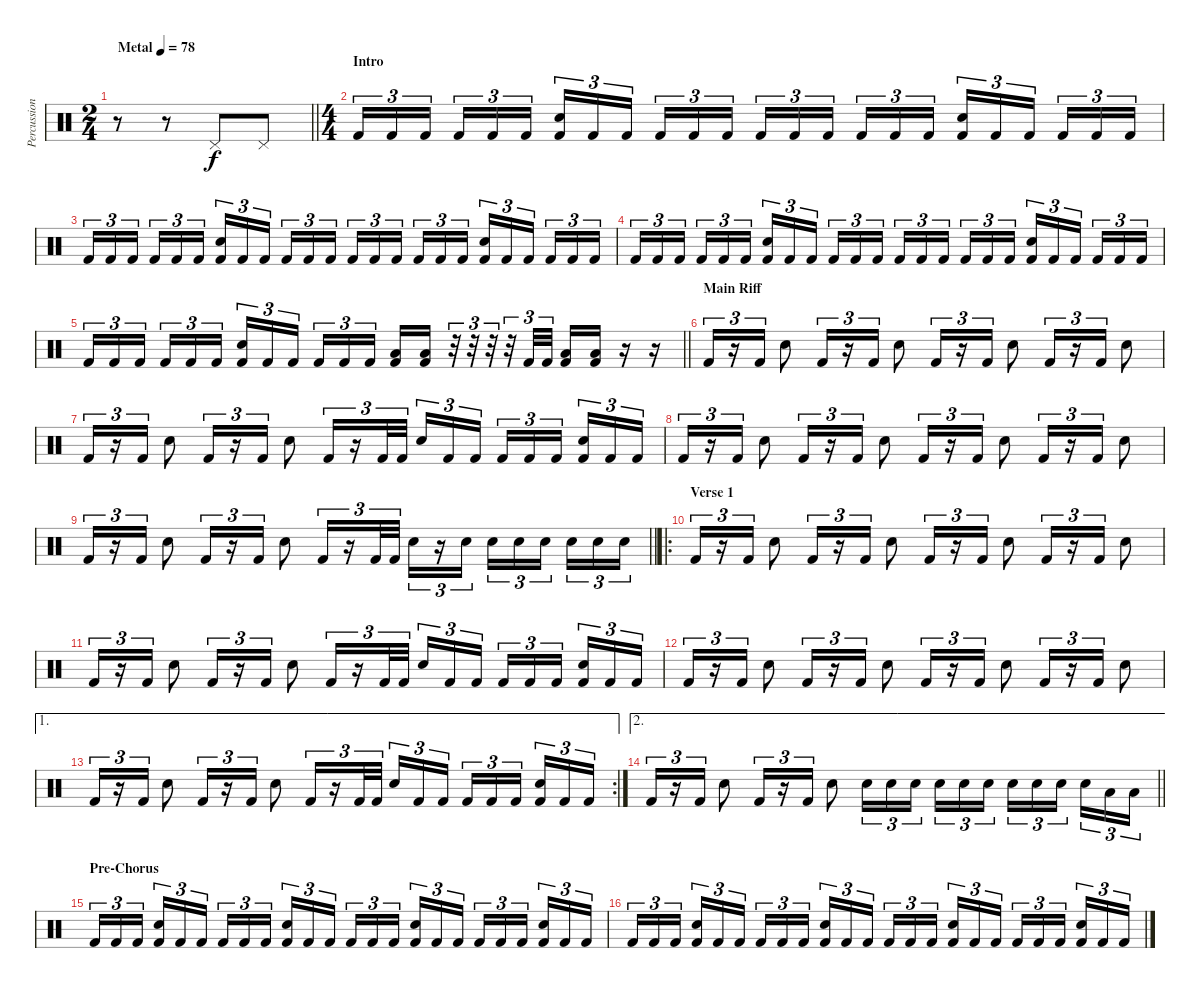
\track ("Percussion" "Percussion") {instrument percussion}
\staff {score}
\articulation defaults
\ts (2 4)
\tempo (78 "Metal")
\clef neutral
\barLineRight lightlight
\ks c
r.8{dy f} r.8 "Pedal Hi-Hat (hit)".8 "Pedal Hi-Hat (hit)".8 |
\ts (4 4)
\section ("" "Intro")
"Kick (hit) 2".16{tu (3 2)} "Kick (hit) 2".16{tu (3 2)} "Kick (hit) 2".16{tu (3 2) beam splitsecondary} "Kick (hit) 2".16{tu (3 2)} "Kick (hit) 2".16{tu (3 2)} "Kick (hit) 2".16{tu (3 2)} ("Kick (hit) 2" "Electric Snare (hit)").16{tu (3 2)} "Kick (hit) 2".16{tu (3 2)} "Kick (hit) 2".16{tu (3 2) beam splitsecondary} "Kick (hit) 2".16{tu (3 2)} "Kick (hit) 2".16{tu (3 2)} "Kick (hit) 2".16{tu (3 2)} "Kick (hit) 2".16{tu (3 2)} "Kick (hit) 2".16{tu (3 2)} "Kick (hit) 2".16{tu (3 2) beam splitsecondary} "Kick (hit) 2".16{tu (3 2)} "Kick (hit) 2".16{tu (3 2)} "Kick (hit) 2".16{tu (3 2)} ("Kick (hit) 2" "Electric Snare (hit)").16{tu (3 2)} "Kick (hit) 2".16{tu (3 2)} "Kick (hit) 2".16{tu (3 2) beam splitsecondary} "Kick (hit) 2".16{tu (3 2)} "Kick (hit) 2".16{tu (3 2)} "Kick (hit) 2".16{tu (3 2)} |
"Kick (hit) 2".16{tu (3 2)} "Kick (hit) 2".16{tu (3 2)} "Kick (hit) 2".16{tu (3 2) beam splitsecondary} "Kick (hit) 2".16{tu (3 2)} "Kick (hit) 2".16{tu (3 2)} "Kick (hit) 2".16{tu (3 2)} ("Kick (hit) 2" "Electric Snare (hit)").16{tu (3 2)} "Kick (hit) 2".16{tu (3 2)} "Kick (hit) 2".16{tu (3 2) beam splitsecondary} "Kick (hit) 2".16{tu (3 2)} "Kick (hit) 2".16{tu (3 2)} "Kick (hit) 2".16{tu (3 2)} "Kick (hit) 2".16{tu (3 2)} "Kick (hit) 2".16{tu (3 2)} "Kick (hit) 2".16{tu (3 2) beam splitsecondary} "Kick (hit) 2".16{tu (3 2)} "Kick (hit) 2".16{tu (3 2)} "Kick (hit) 2".16{tu (3 2)} ("Kick (hit) 2" "Electric Snare (hit)").16{tu (3 2)} "Kick (hit) 2".16{tu (3 2)} "Kick (hit) 2".16{tu (3 2) beam splitsecondary} "Kick (hit) 2".16{tu (3 2)} "Kick (hit) 2".16{tu (3 2)} "Kick (hit) 2".16{tu (3 2)} |
"Kick (hit) 2".16{tu (3 2)} "Kick (hit) 2".16{tu (3 2)} "Kick (hit) 2".16{tu (3 2) beam splitsecondary} "Kick (hit) 2".16{tu (3 2)} "Kick (hit) 2".16{tu (3 2)} "Kick (hit) 2".16{tu (3 2)} ("Kick (hit) 2" "Electric Snare (hit)").16{tu (3 2)} "Kick (hit) 2".16{tu (3 2)} "Kick (hit) 2".16{tu (3 2) beam splitsecondary} "Kick (hit) 2".16{tu (3 2)} "Kick (hit) 2".16{tu (3 2)} "Kick (hit) 2".16{tu (3 2)} "Kick (hit) 2".16{tu (3 2)} "Kick (hit) 2".16{tu (3 2)} "Kick (hit) 2".16{tu (3 2) beam splitsecondary} "Kick (hit) 2".16{tu (3 2)} "Kick (hit) 2".16{tu (3 2)} "Kick (hit) 2".16{tu (3 2)} ("Kick (hit) 2" "Electric Snare (hit)").16{tu (3 2)} "Kick (hit) 2".16{tu (3 2)} "Kick (hit) 2".16{tu (3 2) beam splitsecondary} "Kick (hit) 2".16{tu (3 2)} "Kick (hit) 2".16{tu (3 2)} "Kick (hit) 2".16{tu (3 2)} |
\barLineRight lightlight "Kick (hit) 2".16{tu (3 2)} "Kick (hit) 2".16{tu (3 2)} "Kick (hit) 2".16{tu (3 2) beam splitsecondary} "Kick (hit) 2".16{tu (3 2)} "Kick (hit) 2".16{tu (3 2)} "Kick (hit) 2".16{tu (3 2)}
("Kick (hit) 2" "Electric Snare (hit)").16{tu (3 2)} "Kick (hit) 2".16{tu (3 2)} "Kick (hit) 2".16{tu (3 2) beam splitsecondary} "Kick (hit) 2".16{tu (3 2)} "Kick (hit) 2".16{tu (3 2)} "Kick (hit) 2".16{tu (3 2)} ("Kick (hit) 2" "Low Floor Tom (hit)").16 ("Kick (hit) 2" "Low Floor Tom (hit)").16 r.32{tu (3 2)} r.32{tu (3 2)} r.32{tu (3 2)} r.32{tu (3 2)} "Kick (hit) 2".32{tu (3 2)} "Kick (hit) 2".32{tu (3 2)} ("Kick (hit) 2" "Low Floor Tom (hit)").16 ("Kick (hit) 2" "Low Floor Tom (hit)").16 r.16 r.16 |
\section ("" "Main Riff")
"Kick (hit) 2".16{tu (3 2)} r.16{tu (3 2)} "Kick (hit) 2".16{tu (3 2)} "Electric Snare (hit)".8 "Kick (hit) 2".16{tu (3 2)} r.16{tu (3 2)} "Kick (hit) 2".16{tu (3 2)} "Electric Snare (hit)".8 "Kick (hit) 2".16{tu (3 2)} r.16{tu (3 2)} "Kick (hit) 2".16{tu (3 2)} "Electric Snare (hit)".8 "Kick (hit) 2".16{tu (3 2)} r.16{tu (3 2)} "Kick (hit) 2".16{tu (3 2)} "Electric Snare (hit)".8 |
"Kick (hit) 2".16{tu (3 2)} r.16{tu (3 2)} "Kick (hit) 2".16{tu (3 2)} "Electric Snare (hit)".8 "Kick (hit) 2".16{tu (3 2)} r.16{tu (3 2)} "Kick (hit) 2".16{tu (3 2)} "Electric Snare (hit)".8 "Kick (hit) 2".16{tu (3 2)} r.16{tu (3 2)} "Kick (hit) 2".32{tu (3 2)} "Kick (hit) 2".32{tu (3 2) beam splitsecondary} "Electric Snare (hit)".16{tu (3 2)} "Kick (hit) 2".16{tu (3 2)} "Kick (hit) 2".16{tu (3 2)} "Kick (hit) 2".16{tu (3 2)} "Kick (hit) 2".16{tu (3 2)} "Kick (hit) 2".16{tu (3 2) beam splitsecondary} ("Kick (hit) 2" "Electric Snare (hit)").16{tu (3 2)} "Kick (hit) 2".16{tu (3 2)} "Kick (hit) 2".16{tu (3 2)} |
"Kick (hit) 2".16{tu (3 2)} r.16{tu (3 2)} "Kick (hit) 2".16{tu (3 2)} "Electric Snare (hit)".8 "Kick (hit) 2".16{tu (3 2)} r.16{tu (3 2)} "Kick (hit) 2".16{tu (3 2)} "Electric Snare (hit)".8 "Kick (hit) 2".16{tu (3 2)} r.16{tu (3 2)} "Kick (hit) 2".16{tu (3 2)} "Electric Snare (hit)".8 "Kick (hit) 2".16{tu (3 2)} r.16{tu (3 2)} "Kick (hit) 2".16{tu (3 2)} "Electric Snare (hit)".8 |
\barLineRight lightlight "Kick (hit) 2".16{tu (3 2)}
r.16{tu (3 2)} "Kick (hit) 2".16{tu (3 2)} "Electric Snare (hit)".8 "Kick (hit) 2".16{tu (3 2)} r.16{tu (3 2)} "Kick (hit) 2".16{tu (3 2)} "Electric Snare (hit)".8 "Kick (hit) 2".16{tu (3 2)} r.16{tu (3 2)} "Kick (hit) 2".32{tu (3 2)} "Kick (hit) 2".32{tu (3 2) beam splitsecondary} "Electric Snare (hit)".16{tu (3 2)} r.16{tu (3 2)} "Electric Snare (hit)".16{tu (3 2)} "Electric Snare (hit)".16{tu (3 2)} "Electric Snare (hit)".16{tu (3 2)} "Electric Snare (hit)".16{tu (3 2) beam splitsecondary} "Electric Snare (hit)".16{tu (3 2)} "Electric Snare (hit)".16{tu (3 2)} "Electric Snare (hit)".16{tu (3 2)} |
\ro
\section ("" "Verse 1")
"Kick (hit) 2".16{tu (3 2)} r.16{tu (3 2)} "Kick (hit) 2".16{tu (3 2)} "Electric Snare (hit)".8 "Kick (hit) 2".16{tu (3 2)} r.16{tu (3 2)} "Kick (hit) 2".16{tu (3 2)} "Electric Snare (hit)".8 "Kick (hit) 2".16{tu (3 2)} r.16{tu (3 2)} "Kick (hit) 2".16{tu (3 2)} "Electric Snare (hit)".8 "Kick (hit) 2".16{tu (3 2)} r.16{tu (3 2)} "Kick (hit) 2".16{tu (3 2)} "Electric Snare (hit)".8 |
"Kick (hit) 2".16{tu (3 2)} r.16{tu (3 2)} "Kick (hit) 2".16{tu (3 2)} "Electric Snare (hit)".8 "Kick (hit) 2".16{tu (3 2)} r.16{tu (3 2)} "Kick (hit) 2".16{tu (3 2)} "Electric Snare (hit)".8 "Kick (hit) 2".16{tu (3 2)} r.16{tu (3 2)} "Kick (hit) 2".32{tu (3 2)} "Kick (hit) 2".32{tu (3 2) beam splitsecondary} "Electric Snare (hit)".16{tu (3 2)} "Kick (hit) 2".16{tu (3 2)} "Kick (hit) 2".16{tu (3 2)} "Kick (hit) 2".16{tu (3 2)} "Kick (hit) 2".16{tu (3 2)} "Kick (hit) 2".16{tu (3 2) beam splitsecondary} ("Kick (hit) 2" "Electric Snare (hit)").16{tu (3 2)} "Kick (hit) 2".16{tu (3 2)} "Kick (hit) 2".16{tu (3 2)} |
"Kick (hit) 2".16{tu (3 2)} r.16{tu (3 2)} "Kick (hit) 2".16{tu (3 2)} "Electric Snare (hit)".8 "Kick (hit) 2".16{tu (3 2)} r.16{tu (3 2)} "Kick (hit) 2".16{tu (3 2)} "Electric Snare (hit)".8 "Kick (hit) 2".16{tu (3 2)} r.16{tu (3 2)} "Kick (hit) 2".16{tu (3 2)} "Electric Snare (hit)".8 "Kick (hit) 2".16{tu (3 2)} r.16{tu (3 2)} "Kick (hit) 2".16{tu (3 2)} "Electric Snare (hit)".8 |
\ae 1
\rc 2 "Kick (hit) 2".16{tu (3 2)}
r.16{tu (3 2)} "Kick (hit) 2".16{tu (3 2)} "Electric Snare (hit)".8 "Kick (hit) 2".16{tu (3 2)} r.16{tu (3 2)} "Kick (hit) 2".16{tu (3 2)} "Electric Snare (hit)".8 "Kick (hit) 2".16{tu (3 2)} r.16{tu (3 2)} "Kick (hit) 2".32{tu (3 2)} "Kick (hit) 2".32{tu (3 2) beam splitsecondary} "Electric Snare (hit)".16{tu (3 2)} "Kick (hit) 2".16{tu (3 2)} "Kick (hit) 2".16{tu (3 2)} "Kick (hit) 2".16{tu (3 2)} "Kick (hit) 2".16{tu (3 2)} "Kick (hit) 2".16{tu (3 2) beam splitsecondary} ("Kick (hit) 2" "Electric Snare (hit)").16{tu (3 2)} "Kick (hit) 2".16{tu (3 2)} "Kick (hit) 2".16{tu (3 2)} |
\ae 2
\barLineRight lightlight "Kick (hit) 2".16{tu (3 2)}
r.16{tu (3 2)} "Kick (hit) 2".16{tu (3 2)} "Electric Snare (hit)".8 "Kick (hit) 2".16{tu (3 2)} r.16{tu (3 2)} "Kick (hit) 2".16{tu (3 2)} "Electric Snare (hit)".8 "Electric Snare (hit)".16{tu (3 2)} "Electric Snare (hit)".16{tu (3 2)} "Electric Snare (hit)".16{tu (3 2) beam splitsecondary} "Electric Snare (hit)".16{tu (3 2)} "Electric Snare (hit)".16{tu (3 2)} "Electric Snare (hit)".16{tu (3 2)} "Electric Snare (hit)".16{tu (3 2)} "Electric Snare (hit)".16{tu (3 2)} "Electric Snare (hit)".16{tu (3 2) beam splitsecondary} "Electric Snare (hit)".16{tu (3 2)} "Low Floor Tom (hit)".16{tu (3 2)} "Low Floor Tom (hit)".16{tu (3 2)} |
\section ("" "Pre-Chorus")
"Kick (hit) 2".16{tu (3 2)} "Kick (hit) 2".16{tu (3 2)} "Kick (hit) 2".16{tu (3 2) beam splitsecondary} ("Kick (hit) 2" "Electric Snare (hit)").16{tu (3 2)} "Kick (hit) 2".16{tu (3 2)} "Kick (hit) 2".16{tu (3 2)} "Kick (hit) 2".16{tu (3 2)} "Kick (hit) 2".16{tu (3 2)} "Kick (hit) 2".16{tu (3 2) beam splitsecondary} ("Kick (hit) 2" "Electric Snare (hit)").16{tu (3 2)} "Kick (hit) 2".16{tu (3 2)} "Kick (hit) 2".16{tu (3 2)} "Kick (hit) 2".16{tu (3 2)} "Kick (hit) 2".16{tu (3 2)} "Kick (hit) 2".16{tu (3 2) beam splitsecondary} ("Kick (hit) 2" "Electric Snare (hit)").16{tu (3 2)} "Kick (hit) 2".16{tu (3 2)} "Kick (hit) 2".16{tu (3 2)} "Kick (hit) 2".16{tu (3 2)} "Kick (hit) 2".16{tu (3 2)} "Kick (hit) 2".16{tu (3 2) beam splitsecondary} ("Kick (hit) 2" "Electric Snare (hit)").16{tu (3 2)} "Kick (hit) 2".16{tu (3 2)} "Kick (hit) 2".16{tu (3 2)} |
"Kick (hit) 2".16{tu (3 2)} "Kick (hit) 2".16{tu (3 2)} "Kick (hit) 2".16{tu (3 2) beam splitsecondary} ("Kick (hit) 2" "Electric Snare (hit)").16{tu (3 2)} "Kick (hit) 2".16{tu (3 2)} "Kick (hit) 2".16{tu (3 2)} "Kick (hit) 2".16{tu (3 2)} "Kick (hit) 2".16{tu (3 2)} "Kick (hit) 2".16{tu (3 2) beam splitsecondary} ("Kick (hit) 2" "Electric Snare (hit)").16{tu (3 2)} "Kick (hit) 2".16{tu (3 2)} "Kick (hit) 2".16{tu (3 2)} "Kick (hit) 2".16{tu (3 2)} "Kick (hit) 2".16{tu (3 2)} "Kick (hit) 2".16{tu (3 2) beam splitsecondary} ("Kick (hit) 2" "Electric Snare (hit)").16{tu (3 2)} "Kick (hit) 2".16{tu (3 2)} "Kick (hit) 2".16{tu (3 2)} "Kick (hit) 2".16{tu (3 2)} "Kick (hit) 2".16{tu (3 2)} "Kick (hit) 2".16{tu (3 2) beam splitsecondary} ("Kick (hit) 2" "Electric Snare (hit)").16{tu (3 2)} "Kick (hit) 2".16{tu (3 2)} "Kick (hit) 2".16{tu (3 2)}
